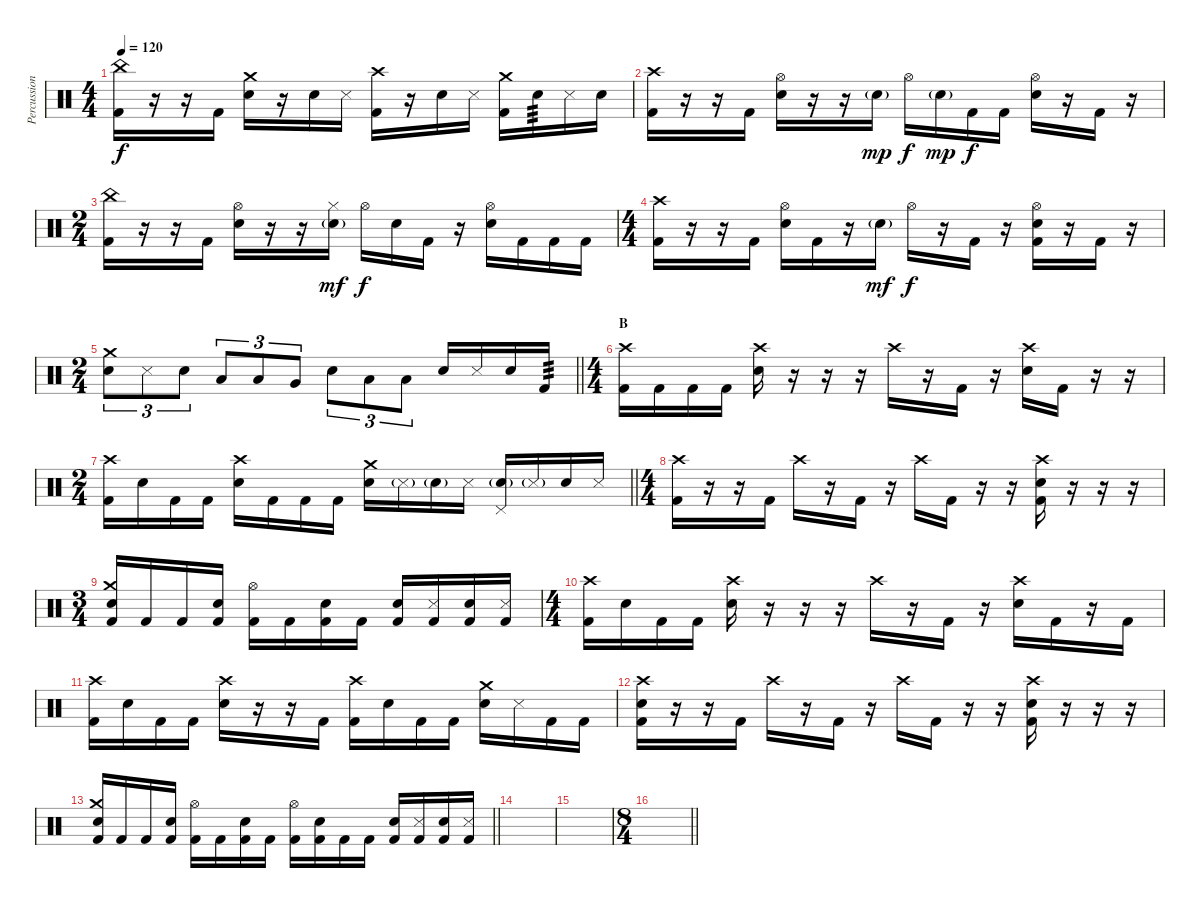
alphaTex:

\track ("Percussion" "Percussion") {instrument percussion}
\staff {score}
\articulation defaults
\ts (4 4)
\tempo 120
\clef neutral
\ks c
("China (hit)" "Kick (hit) 2").16{dy f} r.16 r.16 "Kick (hit) 2".16 ("Crash medium (hit)" "Snare (hit) 2").16 r.16 "Snare (hit) 2".16 "Metronome (hit)".16 ("Crash high (hit)" "Kick (hit) 2").16 r.16 "Snare (hit) 2".16 "Metronome (hit)".16 ("Crash medium (hit)" "Kick (hit) 2").16 "Snare (hit) 2".16{tp 3} "Metronome (hit)".16 "Snare (hit) 2".16 |
("Crash high (hit)" "Kick (hit) 2").16 r.16 r.16 "Kick (hit) 2".16 ("Hi-Hat (open)" "Snare (hit) 2").16 r.16 r.16 "Snare (hit) 2"{g}.16{dy mp} "Hi-Hat (open)".16{dy f} "Snare (hit) 2"{g}.16{dy mp} "Kick (hit) 2".16{dy f} "Kick (hit) 2".16 ("Hi-Hat (open)" "Snare (hit) 2").16 r.16 "Kick (hit) 2".16 r.16 |
\ts (2 4)
("China (hit)" "Kick (hit) 2").16 r.16 r.16 "Kick (hit) 2".16 ("Hi-Hat (open)" "Snare (hit) 2").16 r.16 r.16 ("Hi-Hat (closed)" "Snare (hit) 2"{g}).16{dy mf} "Hi-Hat (open)".16{dy f} "Snare (hit) 2".16 "Kick (hit) 2".16 r.16 ("Hi-Hat (open)" "Snare (hit) 2").16 "Kick (hit) 2".16 "Kick (hit) 2".16 "Kick (hit) 2".16 |
\ts (4 4)
("Crash high (hit)" "Kick (hit) 2").16 r.16 r.16 "Kick (hit) 2".16 ("Hi-Hat (open)" "Snare (hit) 2").16 "Kick (hit) 2".16 r.16 "Snare (hit) 2"{g}.16{dy mf} "Hi-Hat (open)".16{dy f} r.16 "Kick (hit) 2".16 r.16 ("Hi-Hat (open)" "Snare (hit) 2" "Kick (hit) 2").16 r.16 "Kick (hit) 2".16 r.16 |
\ts (2 4)
\barLineRight lightlight
("Crash medium (hit)" "Snare (hit) 2").8{tu (3 2)} "Metronome (hit)".8{tu (3 2)} "Snare (hit) 2".8{tu (3 2)} "Low Tom (hit)".8{tu (3 2)} "Low Tom (hit)".8{tu (3 2)} "Very Low Tom (hit)".8{tu (3 2)} "Snare (hit) 2".8{tu (3 2)} "Low Tom (hit)".8{tu (3 2)} "Low Tom (hit)".8{tu (3 2)} "Snare (hit) 2".16 "Metronome (hit)".16 "Snare (hit) 2".16 "Kick (hit) 2".16{tp 3} |
\ts (4 4)
\section ("" "B")
("Crash high (hit)" "Kick (hit) 2").16 "Kick (hit) 2".16 "Kick (hit) 2".16 "Kick (hit) 2".16 ("Crash high (hit)" "Snare (hit) 2").16 r.16 r.16 r.16 "Crash high (hit)".16 r.16 "Kick (hit) 2".16 r.16 ("Crash high (hit)" "Snare (hit) 2").16 "Kick (hit) 2".16 r.16 r.16 |
\ts (2 4)
\barLineRight lightlight
("Crash high (hit)" "Kick (hit) 2").16 "Snare (hit) 2".16 "Kick (hit) 2".16 "Kick (hit) 2".16 ("Crash high (hit)" "Snare (hit) 2").16 "Kick (hit) 2".16 "Kick (hit) 2".16 "Kick (hit) 2".16 ("Crash medium (hit)" "Snare (hit) 2").16 "Metronome (hit)"{g}.16 "Snare (hit) 2"{g}.16 "Metronome (hit)".16 ("Pedal Hi-Hat (hit)" "Snare (hit) 2"{g}).16 "Metronome (hit)"{g}.16 "Snare (hit) 2".16 "Metronome (hit)".16 |
\ts (4 4)
("Crash high (hit)" "Kick (hit) 2").16 r.16 r.16 "Kick (hit) 2".16 "Crash high (hit)".16 r.16 "Kick (hit) 2".16 r.16 "Crash high (hit)".16 "Kick (hit) 2".16 r.16 r.16 ("Crash high (hit)" "Snare (hit) 2" "Kick (hit) 2").16 r.16 r.16 r.16 |
\ts (3 4)
("Crash medium (hit)" "Snare (hit) 2" "Kick (hit) 2").16 "Kick (hit) 2".16 "Kick (hit) 2".16 ("Snare (hit) 2" "Kick (hit) 2").16 ("Hi-Hat (open)" "Kick (hit) 2").16 "Kick (hit) 2".16 ("Snare (hit) 2" "Kick (hit) 2").16 "Kick (hit) 2".16 ("Snare (hit) 2" "Kick (hit) 2").16 ("Metronome (hit)" "Kick (hit) 2").16 ("Snare (hit) 2" "Kick (hit) 2").16 ("Metronome (hit)" "Kick (hit) 2").16 |
\ts (4 4)
("Crash high (hit)" "Kick (hit) 2").16 "Snare (hit) 2".16 "Kick (hit) 2".16 "Kick (hit) 2".16 ("Crash high (hit)" "Snare (hit) 2").16 r.16 r.16 r.16 "Crash high (hit)".16 r.16 "Kick (hit) 2".16 r.16 ("Crash high (hit)" "Snare (hit) 2").16 "Kick (hit) 2".16 r.16 "Kick (hit) 2".16 |
("Crash high (hit)" "Kick (hit) 2").16 "Snare (hit) 2".16 "Kick (hit) 2".16 "Kick (hit) 2".16 ("Crash high (hit)" "Snare (hit) 2").16 r.16 r.16 "Kick (hit) 2".16 ("Crash high (hit)" "Kick (hit) 2").16 "Snare (hit) 2".16 "Kick (hit) 2".16 "Kick (hit) 2".16 ("Crash medium (hit)" "Snare (hit) 2").16 "Metronome (hit)".16 "Kick (hit) 2".16 "Kick (hit) 2".16 |
("Crash high (hit)" "Snare (hit) 2" "Kick (hit) 2").16 r.16 r.16 "Kick (hit) 2".16 "Crash high (hit)".16 r.16 "Kick (hit) 2".16 r.16 "Crash high (hit)".16 "Kick (hit) 2".16 r.16 r.16 ("Crash high (hit)" "Snare (hit) 2" "Kick (hit) 2").16 r.16 r.16 r.16 |
\barLineRight lightlight
("Crash medium (hit)" "Snare (hit) 2" "Kick (hit) 2").16 "Kick (hit) 2".16 "Kick (hit) 2".16 ("Snare (hit) 2" "Kick (hit) 2").16 ("Hi-Hat (open)" "Kick (hit) 2").16 "Kick (hit) 2".16 ("Snare (hit) 2" "Kick (hit) 2").16 "Kick (hit) 2".16 ("Hi-Hat (open)" "Kick (hit) 2").16 ("Snare (hit) 2" "Kick (hit) 2").16 "Kick (hit) 2".16 "Kick (hit) 2".16 ("Snare (hit) 2" "Kick (hit) 2").16 ("Metronome (hit)" "Kick (hit) 2").16 ("Snare (hit) 2" "Kick (hit) 2").16 ("Metronome (hit)" "Kick (hit) 2").16 |
|
|
\ts (8 4)
\barLineRight lightlight
